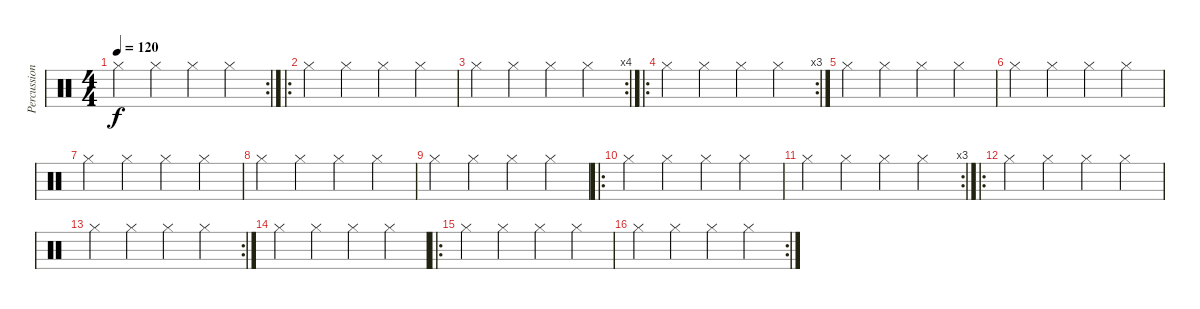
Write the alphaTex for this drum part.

\track ("Percussioni" "Percussion") {instrument percussion}
\staff {score}
\articulation defaults
\rc 2
\ts (4 4)
\tempo 120
\clef neutral
\ks c "Hi-Hat (closed)".4{dy f} "Hi-Hat (closed)".4 "Hi-Hat (closed)".4 "Hi-Hat (closed)".4
|
\ro "Hi-Hat (closed)".4 "Hi-Hat (closed)".4 "Hi-Hat (closed)".4 "Hi-Hat (closed)".4
|
\rc 4 "Hi-Hat (closed)".4 "Hi-Hat (closed)".4 "Hi-Hat (closed)".4 "Hi-Hat (closed)".4
|
\ro
\rc 3 "Hi-Hat (closed)".4 "Hi-Hat (closed)".4 "Hi-Hat (closed)".4 "Hi-Hat (closed)".4
|
"Hi-Hat (closed)".4 "Hi-Hat (closed)".4 "Hi-Hat (closed)".4 "Hi-Hat (closed)".4 |
"Hi-Hat (closed)".4 "Hi-Hat (closed)".4 "Hi-Hat (closed)".4 "Hi-Hat (closed)".4 |
"Hi-Hat (closed)".4 "Hi-Hat (closed)".4 "Hi-Hat (closed)".4 "Hi-Hat (closed)".4 |
"Hi-Hat (closed)".4 "Hi-Hat (closed)".4 "Hi-Hat (closed)".4 "Hi-Hat (closed)".4 |
"Hi-Hat (closed)".4 "Hi-Hat (closed)".4 "Hi-Hat (closed)".4 "Hi-Hat (closed)".4 |
\ro "Hi-Hat (closed)".4 "Hi-Hat (closed)".4 "Hi-Hat (closed)".4 "Hi-Hat (closed)".4
|
\rc 3 "Hi-Hat (closed)".4 "Hi-Hat (closed)".4 "Hi-Hat (closed)".4 "Hi-Hat (closed)".4
|
\ro "Hi-Hat (closed)".4 "Hi-Hat (closed)".4 "Hi-Hat (closed)".4 "Hi-Hat (closed)".4
|
\rc 2 "Hi-Hat (closed)".4 "Hi-Hat (closed)".4 "Hi-Hat (closed)".4 "Hi-Hat (closed)".4
|
"Hi-Hat (closed)".4 "Hi-Hat (closed)".4 "Hi-Hat (closed)".4 "Hi-Hat (closed)".4 |
\ro "Hi-Hat (closed)".4 "Hi-Hat (closed)".4 "Hi-Hat (closed)".4 "Hi-Hat (closed)".4
|
\rc 2 "Hi-Hat (closed)".4 "Hi-Hat (closed)".4 "Hi-Hat (closed)".4 "Hi-Hat (closed)".4
